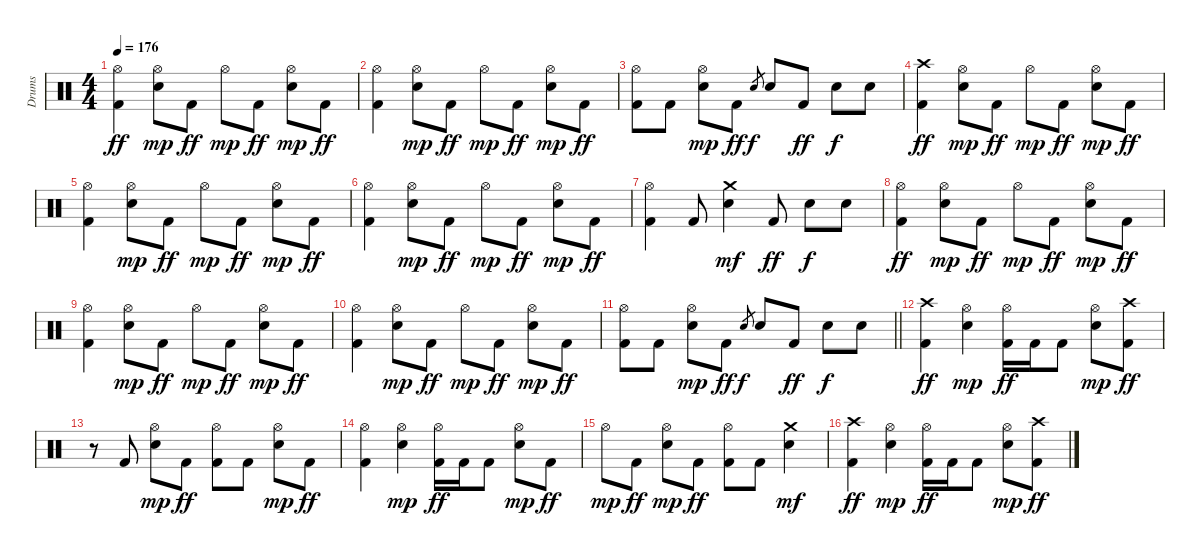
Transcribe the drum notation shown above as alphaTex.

\track ("Drums" "Drums") {instrument percussion}
\staff {score}
\articulation defaults
\ts (4 4)
\tempo 176
\clef neutral
\ks c
("Hi-Hat (open)" "Kick (hit) 2").4{dy ff} ("Hi-Hat (open)" "Electric Snare (hit)").8{dy mp} "Kick (hit) 2".8{dy ff} "Hi-Hat (open)".8{dy mp} "Kick (hit) 2".8{dy ff} ("Hi-Hat (open)" "Electric Snare (hit)").8{dy mp} "Kick (hit) 2".8{dy ff} |
("Hi-Hat (open)" "Kick (hit) 2").4 ("Hi-Hat (open)" "Electric Snare (hit)").8{dy mp} "Kick (hit) 2".8{dy ff} "Hi-Hat (open)".8{dy mp} "Kick (hit) 2".8{dy ff} ("Hi-Hat (open)" "Electric Snare (hit)").8{dy mp} "Kick (hit) 2".8{dy ff} |
("Hi-Hat (open)" "Kick (hit) 2").8 "Kick (hit) 2".8 ("Hi-Hat (open)" "Electric Snare (hit)").8{dy mp} "Kick (hit) 2".8{dy ff} "Electric Snare (hit)".8{gr dy f} "Electric Snare (hit)".8 "Kick (hit) 2".8{dy ff} "Electric Snare (hit)".8{dy f} "Electric Snare (hit)".8 |
("Crash high (hit)" "Kick (hit) 2").4{dy ff} ("Hi-Hat (open)" "Electric Snare (hit)").8{dy mp} "Kick (hit) 2".8{dy ff} "Hi-Hat (open)".8{dy mp} "Kick (hit) 2".8{dy ff} ("Hi-Hat (open)" "Electric Snare (hit)").8{dy mp} "Kick (hit) 2".8{dy ff} |
("Hi-Hat (open)" "Kick (hit) 2").4 ("Hi-Hat (open)" "Electric Snare (hit)").8{dy mp} "Kick (hit) 2".8{dy ff} "Hi-Hat (open)".8{dy mp} "Kick (hit) 2".8{dy ff} ("Hi-Hat (open)" "Electric Snare (hit)").8{dy mp} "Kick (hit) 2".8{dy ff} |
("Hi-Hat (open)" "Kick (hit) 2").4 ("Hi-Hat (open)" "Electric Snare (hit)").8{dy mp} "Kick (hit) 2".8{dy ff} "Hi-Hat (open)".8{dy mp} "Kick (hit) 2".8{dy ff} ("Hi-Hat (open)" "Electric Snare (hit)").8{dy mp} "Kick (hit) 2".8{dy ff} |
("Hi-Hat (open)" "Kick (hit) 2").4 "Kick (hit) 2".8 ("Crash medium (hit)" "Electric Snare (hit)").4{dy mf} "Kick (hit) 2".8{dy ff} "Electric Snare (hit)".8{dy f} "Electric Snare (hit)".8 |
("Hi-Hat (open)" "Kick (hit) 2").4{dy ff} ("Hi-Hat (open)" "Electric Snare (hit)").8{dy mp} "Kick (hit) 2".8{dy ff} "Hi-Hat (open)".8{dy mp} "Kick (hit) 2".8{dy ff} ("Hi-Hat (open)" "Electric Snare (hit)").8{dy mp} "Kick (hit) 2".8{dy ff} |
("Hi-Hat (open)" "Kick (hit) 2").4 ("Hi-Hat (open)" "Electric Snare (hit)").8{dy mp} "Kick (hit) 2".8{dy ff} "Hi-Hat (open)".8{dy mp} "Kick (hit) 2".8{dy ff} ("Hi-Hat (open)" "Electric Snare (hit)").8{dy mp} "Kick (hit) 2".8{dy ff} |
("Hi-Hat (open)" "Kick (hit) 2").4 ("Hi-Hat (open)" "Electric Snare (hit)").8{dy mp} "Kick (hit) 2".8{dy ff} "Hi-Hat (open)".8{dy mp} "Kick (hit) 2".8{dy ff} ("Hi-Hat (open)" "Electric Snare (hit)").8{dy mp} "Kick (hit) 2".8{dy ff} |
\barLineRight lightlight
("Hi-Hat (open)" "Kick (hit) 2").8 "Kick (hit) 2".8 ("Hi-Hat (open)" "Electric Snare (hit)").8{dy mp} "Kick (hit) 2".8{dy ff} "Electric Snare (hit)".8{gr dy f} "Electric Snare (hit)".8 "Kick (hit) 2".8{dy ff} "Electric Snare (hit)".8{dy f} "Electric Snare (hit)".8 |
\section ("" "")
("Crash high (hit)" "Kick (hit) 2").4{dy ff} ("Hi-Hat (open)" "Electric Snare (hit)").4{dy mp} ("Hi-Hat (open)" "Kick (hit) 2").16{dy ff} "Kick (hit) 2".16 "Kick (hit) 2".8 ("Hi-Hat (open)" "Electric Snare (hit)").8{dy mp} ("Crash high (hit)" "Kick (hit) 2").8{dy ff} |
r.8 "Kick (hit) 2".8 ("Hi-Hat (open)" "Electric Snare (hit)").8{dy mp} "Kick (hit) 2".8{dy ff} ("Hi-Hat (open)" "Kick (hit) 2").8 "Kick (hit) 2".8 ("Hi-Hat (open)" "Electric Snare (hit)").8{dy mp} "Kick (hit) 2".8{dy ff} |
("Hi-Hat (open)" "Kick (hit) 2").4 ("Hi-Hat (open)" "Electric Snare (hit)").4{dy mp} ("Hi-Hat (open)" "Kick (hit) 2").16{dy ff} "Kick (hit) 2".16 "Kick (hit) 2".8 ("Hi-Hat (open)" "Electric Snare (hit)").8{dy mp} "Kick (hit) 2".8{dy ff} |
"Hi-Hat (open)".8{dy mp} "Kick (hit) 2".8{dy ff} ("Hi-Hat (open)" "Electric Snare (hit)").8{dy mp} "Kick (hit) 2".8{dy ff} ("Hi-Hat (open)" "Kick (hit) 2").8 "Kick (hit) 2".8 ("Crash medium (hit)" "Electric Snare (hit)").4{dy mf} |
("Crash high (hit)" "Kick (hit) 2").4{dy ff} ("Hi-Hat (open)" "Electric Snare (hit)").4{dy mp} ("Hi-Hat (open)" "Kick (hit) 2").16{dy ff} "Kick (hit) 2".16 "Kick (hit) 2".8 ("Hi-Hat (open)" "Electric Snare (hit)").8{dy mp} ("Crash high (hit)" "Kick (hit) 2").8{dy ff}
